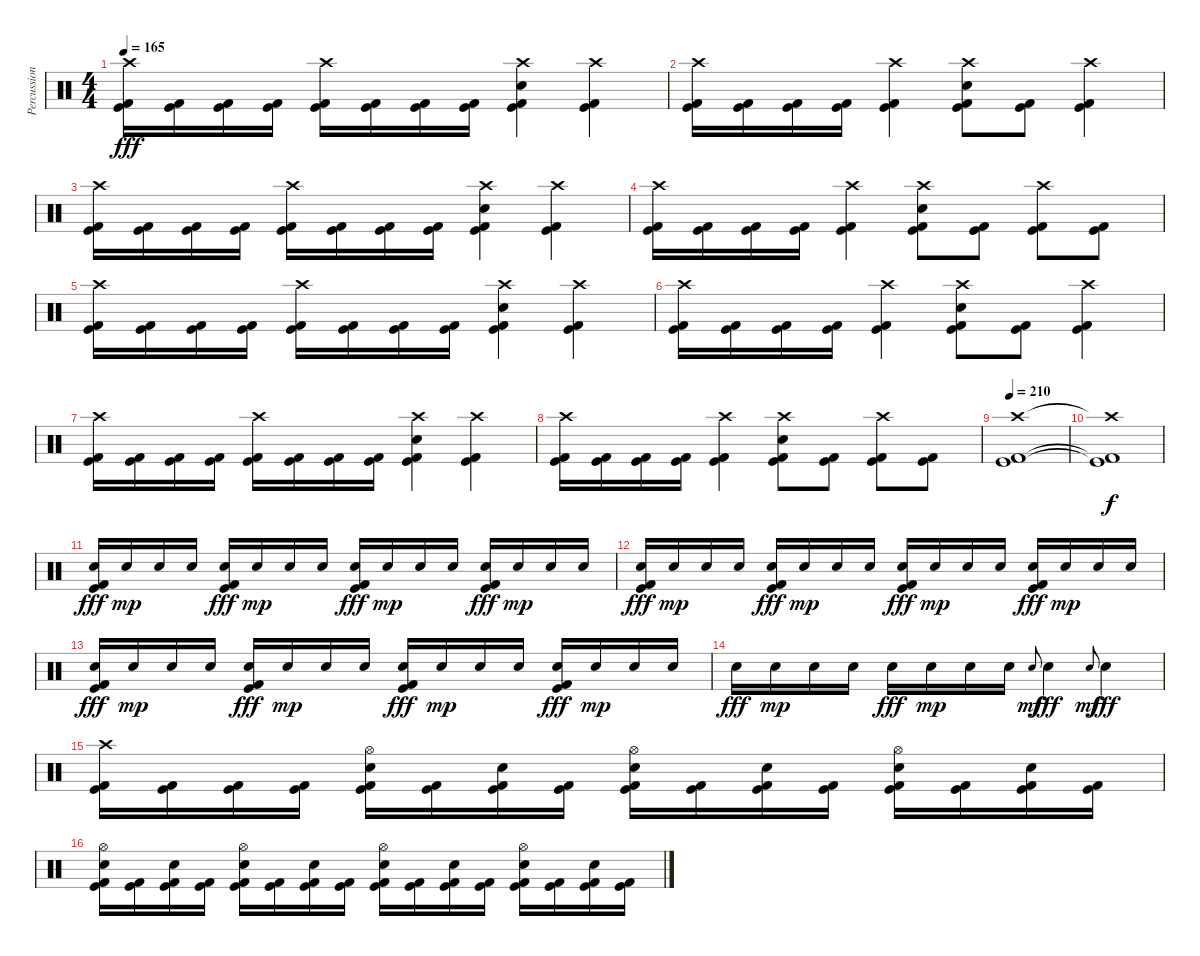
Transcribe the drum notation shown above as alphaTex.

\track ("Percussion" "Percussion") {instrument percussion}
\staff {score}
\articulation defaults
\ts (4 4)
\tempo 165
\clef neutral
\ks c
("Crash high (hit)" "Kick (hit) 2" "Kick (hit)").16{dy fff} ("Kick (hit) 2" "Kick (hit)").16 ("Kick (hit) 2" "Kick (hit)").16 ("Kick (hit) 2" "Kick (hit)").16 ("Crash high (hit)" "Kick (hit) 2" "Kick (hit)").16 ("Kick (hit) 2" "Kick (hit)").16 ("Kick (hit) 2" "Kick (hit)").16 ("Kick (hit) 2" "Kick (hit)").16 ("Electric Snare (hit)" "Crash high (hit)" "Kick (hit) 2" "Kick (hit)").4 ("Crash high (hit)" "Kick (hit) 2" "Kick (hit)").4 |
("Crash high (hit)" "Kick (hit) 2" "Kick (hit)").16 ("Kick (hit) 2" "Kick (hit)").16 ("Kick (hit) 2" "Kick (hit)").16 ("Kick (hit) 2" "Kick (hit)").16 ("Crash high (hit)" "Kick (hit) 2" "Kick (hit)").4 ("Electric Snare (hit)" "Crash high (hit)" "Kick (hit) 2" "Kick (hit)").8 ("Kick (hit) 2" "Kick (hit)").8 ("Crash high (hit)" "Kick (hit) 2" "Kick (hit)").4 |
("Crash high (hit)" "Kick (hit) 2" "Kick (hit)").16 ("Kick (hit) 2" "Kick (hit)").16 ("Kick (hit) 2" "Kick (hit)").16 ("Kick (hit) 2" "Kick (hit)").16 ("Crash high (hit)" "Kick (hit) 2" "Kick (hit)").16 ("Kick (hit) 2" "Kick (hit)").16 ("Kick (hit) 2" "Kick (hit)").16 ("Kick (hit) 2" "Kick (hit)").16 ("Electric Snare (hit)" "Crash high (hit)" "Kick (hit) 2" "Kick (hit)").4 ("Crash high (hit)" "Kick (hit) 2" "Kick (hit)").4 |
("Crash high (hit)" "Kick (hit) 2" "Kick (hit)").16 ("Kick (hit) 2" "Kick (hit)").16 ("Kick (hit) 2" "Kick (hit)").16 ("Kick (hit) 2" "Kick (hit)").16 ("Crash high (hit)" "Kick (hit) 2" "Kick (hit)").4 ("Electric Snare (hit)" "Crash high (hit)" "Kick (hit) 2" "Kick (hit)").8 ("Kick (hit) 2" "Kick (hit)").8 ("Crash high (hit)" "Kick (hit) 2" "Kick (hit)").8 ("Kick (hit) 2" "Kick (hit)").8 |
("Crash high (hit)" "Kick (hit) 2" "Kick (hit)").16 ("Kick (hit) 2" "Kick (hit)").16 ("Kick (hit) 2" "Kick (hit)").16 ("Kick (hit) 2" "Kick (hit)").16 ("Crash high (hit)" "Kick (hit) 2" "Kick (hit)").16 ("Kick (hit) 2" "Kick (hit)").16 ("Kick (hit) 2" "Kick (hit)").16 ("Kick (hit) 2" "Kick (hit)").16 ("Electric Snare (hit)" "Crash high (hit)" "Kick (hit) 2" "Kick (hit)").4 ("Crash high (hit)" "Kick (hit) 2" "Kick (hit)").4 |
("Crash high (hit)" "Kick (hit) 2" "Kick (hit)").16 ("Kick (hit) 2" "Kick (hit)").16 ("Kick (hit) 2" "Kick (hit)").16 ("Kick (hit) 2" "Kick (hit)").16 ("Crash high (hit)" "Kick (hit) 2" "Kick (hit)").4 ("Electric Snare (hit)" "Crash high (hit)" "Kick (hit) 2" "Kick (hit)").8 ("Kick (hit) 2" "Kick (hit)").8 ("Crash high (hit)" "Kick (hit) 2" "Kick (hit)").4 |
("Crash high (hit)" "Kick (hit) 2" "Kick (hit)").16 ("Kick (hit) 2" "Kick (hit)").16 ("Kick (hit) 2" "Kick (hit)").16 ("Kick (hit) 2" "Kick (hit)").16 ("Crash high (hit)" "Kick (hit) 2" "Kick (hit)").16 ("Kick (hit) 2" "Kick (hit)").16 ("Kick (hit) 2" "Kick (hit)").16 ("Kick (hit) 2" "Kick (hit)").16 ("Electric Snare (hit)" "Crash high (hit)" "Kick (hit) 2" "Kick (hit)").4 ("Crash high (hit)" "Kick (hit) 2" "Kick (hit)").4 |
("Crash high (hit)" "Kick (hit) 2" "Kick (hit)").16 ("Kick (hit) 2" "Kick (hit)").16 ("Kick (hit) 2" "Kick (hit)").16 ("Kick (hit) 2" "Kick (hit)").16 ("Crash high (hit)" "Kick (hit) 2" "Kick (hit)").4 ("Electric Snare (hit)" "Crash high (hit)" "Kick (hit) 2" "Kick (hit)").8 ("Kick (hit) 2" "Kick (hit)").8 ("Crash high (hit)" "Kick (hit) 2" "Kick (hit)").8 ("Kick (hit) 2" "Kick (hit)").8 |
\tempo 210
("Crash high (hit)" "Kick (hit) 2" "Kick (hit)").1 |
("Crash high (hit)"{t} "Kick (hit) 2"{t} "Kick (hit)"{t}).1{dy f} |
("Kick (hit) 2" "Kick (hit)" "Electric Snare (hit)").16{dy fff} "Electric Snare (hit)".16{dy mp} "Electric Snare (hit)".16 "Electric Snare (hit)".16 ("Kick (hit) 2" "Kick (hit)" "Electric Snare (hit)").16{dy fff} "Electric Snare (hit)".16{dy mp} "Electric Snare (hit)".16 "Electric Snare (hit)".16 ("Kick (hit) 2" "Kick (hit)" "Electric Snare (hit)").16{dy fff} "Electric Snare (hit)".16{dy mp} "Electric Snare (hit)".16 "Electric Snare (hit)".16 ("Kick (hit) 2" "Kick (hit)" "Electric Snare (hit)").16{dy fff} "Electric Snare (hit)".16{dy mp} "Electric Snare (hit)".16 "Electric Snare (hit)".16 |
("Kick (hit) 2" "Kick (hit)" "Electric Snare (hit)").16{dy fff} "Electric Snare (hit)".16{dy mp} "Electric Snare (hit)".16 "Electric Snare (hit)".16 ("Kick (hit) 2" "Kick (hit)" "Electric Snare (hit)").16{dy fff} "Electric Snare (hit)".16{dy mp} "Electric Snare (hit)".16 "Electric Snare (hit)".16 ("Kick (hit) 2" "Kick (hit)" "Electric Snare (hit)").16{dy fff} "Electric Snare (hit)".16{dy mp} "Electric Snare (hit)".16 "Electric Snare (hit)".16 ("Kick (hit) 2" "Kick (hit)" "Electric Snare (hit)").16{dy fff} "Electric Snare (hit)".16{dy mp} "Electric Snare (hit)".16 "Electric Snare (hit)".16 |
("Kick (hit) 2" "Kick (hit)" "Electric Snare (hit)").16{dy fff} "Electric Snare (hit)".16{dy mp} "Electric Snare (hit)".16 "Electric Snare (hit)".16 ("Kick (hit) 2" "Kick (hit)" "Electric Snare (hit)").16{dy fff} "Electric Snare (hit)".16{dy mp} "Electric Snare (hit)".16 "Electric Snare (hit)".16 ("Kick (hit) 2" "Kick (hit)" "Electric Snare (hit)").16{dy fff} "Electric Snare (hit)".16{dy mp} "Electric Snare (hit)".16 "Electric Snare (hit)".16 ("Kick (hit) 2" "Kick (hit)" "Electric Snare (hit)").16{dy fff} "Electric Snare (hit)".16{dy mp} "Electric Snare (hit)".16 "Electric Snare (hit)".16 |
"Electric Snare (hit)".16{dy fff} "Electric Snare (hit)".16{dy mp} "Electric Snare (hit)".16 "Electric Snare (hit)".16 "Electric Snare (hit)".16{dy fff} "Electric Snare (hit)".16{dy mp} "Electric Snare (hit)".16 "Electric Snare (hit)".16 "Electric Snare (hit)".8{gr onbeat dy mf} "Electric Snare (hit)".4{dy fff} "Electric Snare (hit)".8{gr onbeat dy mf} "Electric Snare (hit)".4{dy fff} |
("Crash high (hit)" "Kick (hit) 2" "Kick (hit)").16 ("Kick (hit) 2" "Kick (hit)").16 ("Kick (hit) 2" "Kick (hit)").16 ("Kick (hit) 2" "Kick (hit)").16 ("Hi-Hat (open)" "Electric Snare (hit)" "Kick (hit) 2" "Kick (hit)").16 ("Kick (hit) 2" "Kick (hit)").16 ("Electric Snare (hit)" "Kick (hit) 2" "Kick (hit)").16 ("Kick (hit) 2" "Kick (hit)").16 ("Hi-Hat (open)" "Electric Snare (hit)" "Kick (hit) 2" "Kick (hit)").16 ("Kick (hit) 2" "Kick (hit)").16 ("Electric Snare (hit)" "Kick (hit) 2" "Kick (hit)").16 ("Kick (hit) 2" "Kick (hit)").16 ("Hi-Hat (open)" "Electric Snare (hit)" "Kick (hit) 2" "Kick (hit)").16 ("Kick (hit) 2" "Kick (hit)").16 ("Electric Snare (hit)" "Kick (hit) 2" "Kick (hit)").16 ("Kick (hit) 2" "Kick (hit)").16 |
("Hi-Hat (open)" "Electric Snare (hit)" "Kick (hit) 2" "Kick (hit)").16 ("Kick (hit) 2" "Kick (hit)").16 ("Electric Snare (hit)" "Kick (hit) 2" "Kick (hit)").16 ("Kick (hit) 2" "Kick (hit)").16 ("Hi-Hat (open)" "Electric Snare (hit)" "Kick (hit) 2" "Kick (hit)").16 ("Kick (hit) 2" "Kick (hit)").16 ("Electric Snare (hit)" "Kick (hit) 2" "Kick (hit)").16 ("Kick (hit) 2" "Kick (hit)").16 ("Hi-Hat (open)" "Electric Snare (hit)" "Kick (hit) 2" "Kick (hit)").16 ("Kick (hit) 2" "Kick (hit)").16 ("Electric Snare (hit)" "Kick (hit) 2" "Kick (hit)").16 ("Kick (hit) 2" "Kick (hit)").16 ("Hi-Hat (open)" "Electric Snare (hit)" "Kick (hit) 2" "Kick (hit)").16 ("Kick (hit) 2" "Kick (hit)").16 ("Electric Snare (hit)" "Kick (hit) 2" "Kick (hit)").16 ("Kick (hit) 2" "Kick (hit)").16
